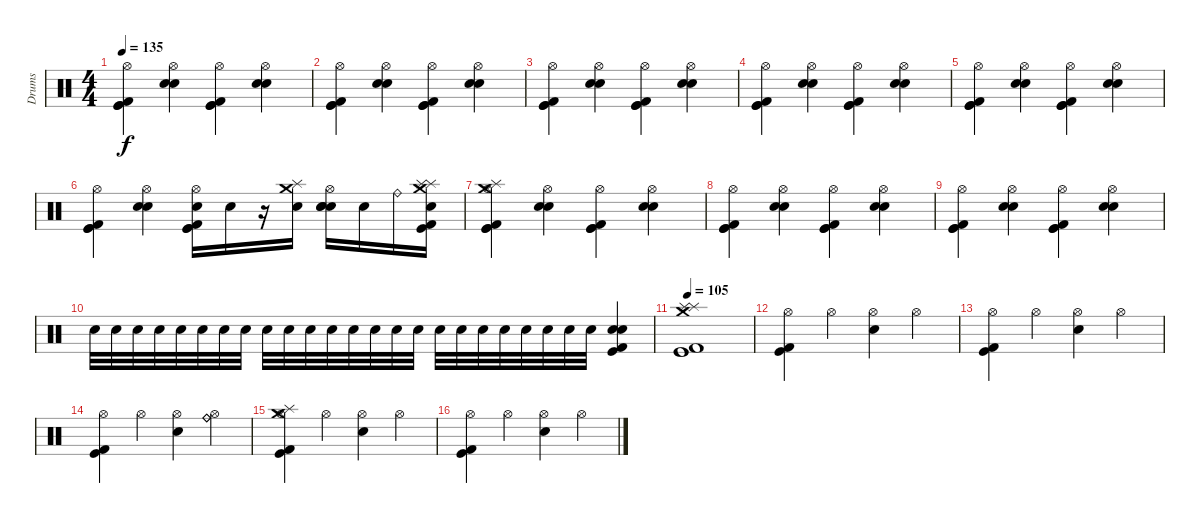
\track ("Drums" "Drums") {instrument percussion}
\staff {score}
\articulation defaults
\ts (4 4)
\tempo 135
\clef neutral
\ks c
("Hi-Hat (open)" "Kick (hit)" "Kick (hit) 2" "Kick (hit)").4{dy f} ("Hi-Hat (open)" "Snare (hit) 2" "Snare (hit) 2").4 ("Hi-Hat (open)" "Kick (hit)" "Kick (hit) 2" "Kick (hit)").4 ("Hi-Hat (open)" "Snare (hit) 2" "Snare (hit) 2").4 |
("Hi-Hat (open)" "Kick (hit)" "Kick (hit) 2" "Kick (hit)").4 ("Hi-Hat (open)" "Snare (hit) 2" "Snare (hit) 2").4 ("Hi-Hat (open)" "Kick (hit)" "Kick (hit) 2" "Kick (hit)").4 ("Hi-Hat (open)" "Snare (hit) 2" "Snare (hit) 2").4 |
("Hi-Hat (open)" "Kick (hit)" "Kick (hit) 2" "Kick (hit)").4 ("Hi-Hat (open)" "Snare (hit) 2" "Snare (hit) 2").4 ("Hi-Hat (open)" "Kick (hit)" "Kick (hit) 2" "Kick (hit)").4 ("Hi-Hat (open)" "Snare (hit) 2" "Snare (hit) 2").4 |
("Hi-Hat (open)" "Kick (hit)" "Kick (hit) 2" "Kick (hit)").4 ("Hi-Hat (open)" "Snare (hit) 2" "Snare (hit) 2").4 ("Hi-Hat (open)" "Kick (hit)" "Kick (hit) 2" "Kick (hit)").4 ("Hi-Hat (open)" "Snare (hit) 2" "Snare (hit) 2").4 |
("Hi-Hat (open)" "Kick (hit)" "Kick (hit) 2" "Kick (hit)").4 ("Hi-Hat (open)" "Snare (hit) 2" "Snare (hit) 2").4 ("Hi-Hat (open)" "Kick (hit)" "Kick (hit) 2" "Kick (hit)").4 ("Hi-Hat (open)" "Snare (hit) 2" "Snare (hit) 2").4 |
("Hi-Hat (open)" "Kick (hit)" "Kick (hit) 2" "Kick (hit)").4 ("Hi-Hat (open)" "Snare (hit) 2" "Snare (hit) 2").4 ("Hi-Hat (open)" "Kick (hit)" "Kick (hit) 2" "Kick (hit)" "Snare (hit) 2").16 "Snare (hit) 2".16 r.16 ("Crash medium (hit)" "Snare (hit) 2" "Splash (hit)").16 ("Hi-Hat (open)" "Snare (hit) 2" "Snare (hit) 2" "Snare (hit) 2").16 "Snare (hit) 2".16 "Ride (bell)".16 ("Kick (hit) 2" "Kick (hit)" "Splash (hit)" "Splash (hit)" "Snare (hit) 2" "Crash medium (hit)").16 |
("Hi-Hat (open)" "Kick (hit)" "Kick (hit) 2" "Kick (hit)" "Splash (hit)" "Crash medium (hit)").4 ("Hi-Hat (open)" "Snare (hit) 2" "Snare (hit) 2").4 ("Hi-Hat (open)" "Kick (hit)" "Kick (hit) 2" "Kick (hit)").4 ("Hi-Hat (open)" "Snare (hit) 2" "Snare (hit) 2").4 |
("Hi-Hat (open)" "Kick (hit)" "Kick (hit) 2" "Kick (hit)").4 ("Hi-Hat (open)" "Snare (hit) 2" "Snare (hit) 2").4 ("Hi-Hat (open)" "Kick (hit)" "Kick (hit) 2" "Kick (hit)").4 ("Hi-Hat (open)" "Snare (hit) 2" "Snare (hit) 2").4 |
("Hi-Hat (open)" "Kick (hit)" "Kick (hit) 2" "Kick (hit)").4 ("Hi-Hat (open)" "Snare (hit) 2" "Snare (hit) 2").4 ("Hi-Hat (open)" "Kick (hit)" "Kick (hit) 2" "Kick (hit)").4 ("Hi-Hat (open)" "Snare (hit) 2" "Snare (hit) 2").4 |
"Snare (hit) 2".32 "Snare (hit) 2".32 "Snare (hit) 2".32 "Snare (hit) 2".32 "Snare (hit) 2".32 "Snare (hit) 2".32 "Snare (hit) 2".32 "Snare (hit) 2".32 "Snare (hit) 2".32 "Snare (hit) 2".32 "Snare (hit) 2".32 "Snare (hit) 2".32 "Snare (hit) 2".32 "Snare (hit) 2".32 "Snare (hit) 2".32 "Snare (hit) 2".32 "Snare (hit) 2".32 "Snare (hit) 2".32 "Snare (hit) 2".32 "Snare (hit) 2".32 "Snare (hit) 2".32 "Snare (hit) 2".32 "Snare (hit) 2".32 "Snare (hit) 2".32 ("Snare (hit) 2" "Kick (hit) 2" "Kick (hit)" "Snare (hit) 2").4 |
\tempo 105
("Splash (hit)" "Crash medium (hit)" "Kick (hit)" "Kick (hit) 2" "Kick (hit)" "Splash (hit)").1 |
("Hi-Hat (open)" "Kick (hit)" "Kick (hit) 2").4 "Hi-Hat (open)".4 ("Hi-Hat (open)" "Snare (hit) 2").4 "Hi-Hat (open)".4 |
("Hi-Hat (open)" "Kick (hit)" "Kick (hit) 2").4 "Hi-Hat (open)".4 ("Hi-Hat (open)" "Snare (hit) 2").4 "Hi-Hat (open)".4 |
("Hi-Hat (open)" "Kick (hit)" "Kick (hit) 2").4 "Hi-Hat (open)".4 ("Hi-Hat (open)" "Snare (hit) 2").4 ("Hi-Hat (open)" "Ride (bell)" "Ride (bell)").4 |
("Hi-Hat (open)" "Splash (hit)" "Kick (hit)" "Kick (hit) 2" "Crash medium (hit)").4 "Hi-Hat (open)".4 ("Hi-Hat (open)" "Snare (hit) 2").4 "Hi-Hat (open)".4 |
("Hi-Hat (open)" "Kick (hit)" "Kick (hit) 2").4 "Hi-Hat (open)".4 ("Hi-Hat (open)" "Snare (hit) 2").4 "Hi-Hat (open)".4
